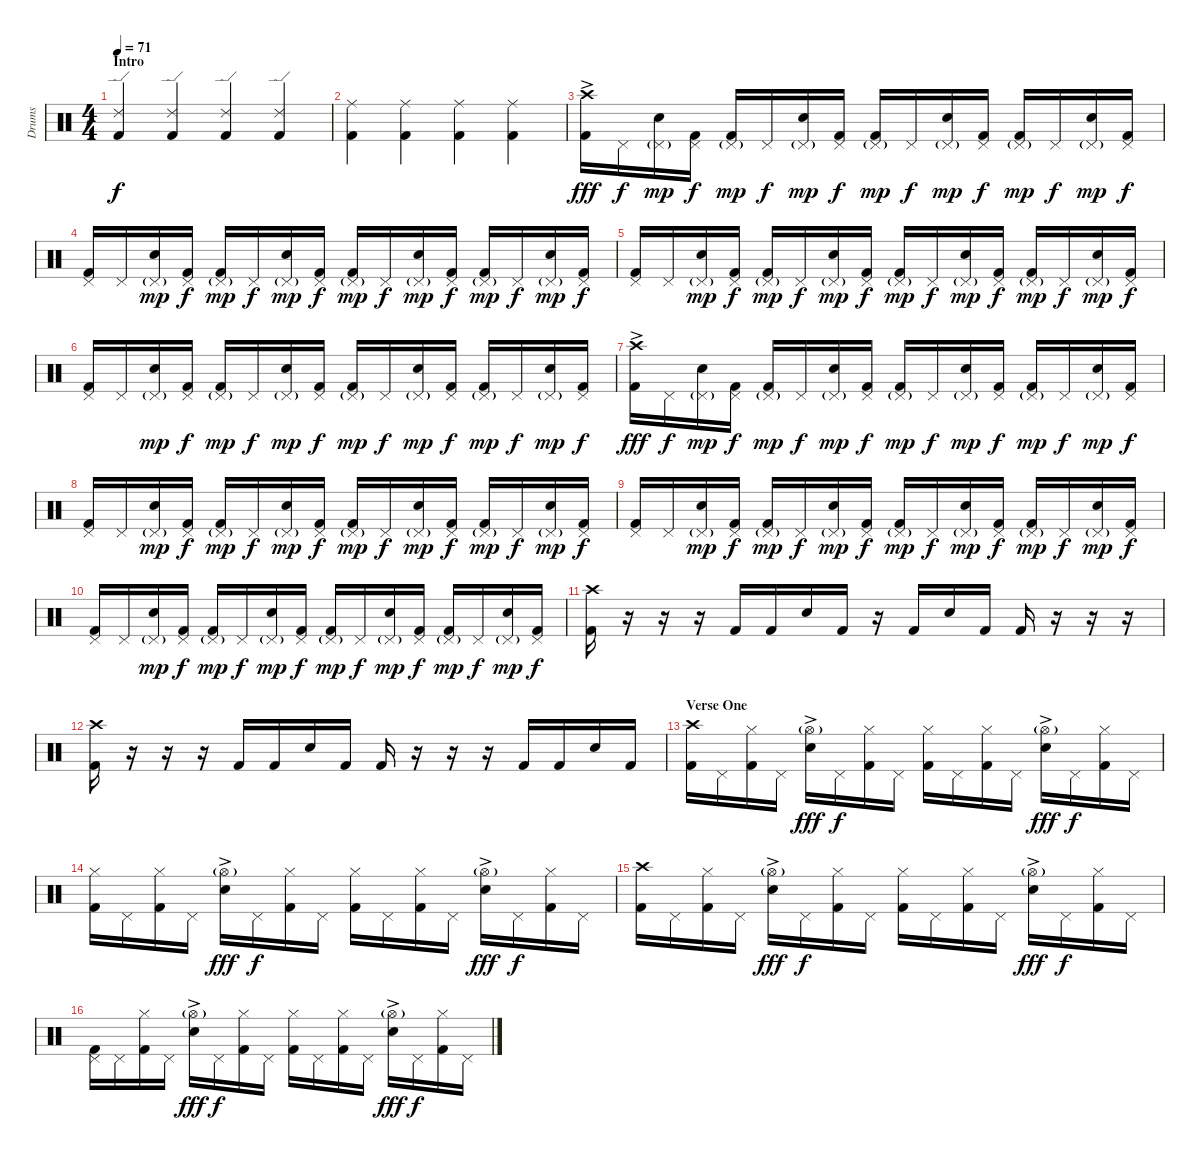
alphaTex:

\track ("Drums" "Drums") {instrument percussion}
\staff {score}
\articulation defaults
\ts (4 4)
\section ("" "Intro")
\tempo 71
\clef neutral
\ks c
("Ride (edge) 2" "Kick (hit) 2").4{dy f} ("Ride (edge) 2" "Kick (hit) 2").4 ("Ride (edge) 2" "Kick (hit) 2").4 ("Ride (edge) 2" "Kick (hit) 2").4 |
("Ride (middle)" "Kick (hit) 2").4 ("Ride (middle)" "Kick (hit) 2").4 ("Ride (middle)" "Kick (hit) 2").4 ("Ride (middle)" "Kick (hit) 2").4 |
("Crash high (hit)"{ac} "Kick (hit) 2").16{dy fff} "Pedal Hi-Hat (hit)".16{dy f} ("Pedal Hi-Hat (hit)"{g} "Electric Snare (hit)").16{dy mp} ("Pedal Hi-Hat (hit)" "Kick (hit) 2").16{dy f} ("Pedal Hi-Hat (hit)"{g} "Kick (hit) 2").16{dy mp} "Pedal Hi-Hat (hit)".16{dy f} ("Pedal Hi-Hat (hit)"{g} "Electric Snare (hit)").16{dy mp} ("Pedal Hi-Hat (hit)" "Kick (hit) 2").16{dy f} ("Pedal Hi-Hat (hit)"{g} "Kick (hit) 2").16{dy mp} "Pedal Hi-Hat (hit)".16{dy f} ("Pedal Hi-Hat (hit)"{g} "Electric Snare (hit)").16{dy mp} ("Pedal Hi-Hat (hit)" "Kick (hit) 2").16{dy f} ("Pedal Hi-Hat (hit)"{g} "Kick (hit) 2").16{dy mp} "Pedal Hi-Hat (hit)".16{dy f} ("Pedal Hi-Hat (hit)"{g} "Electric Snare (hit)").16{dy mp} ("Pedal Hi-Hat (hit)" "Kick (hit) 2").16{dy f} |
("Pedal Hi-Hat (hit)" "Kick (hit) 2").16 "Pedal Hi-Hat (hit)".16 ("Pedal Hi-Hat (hit)"{g} "Electric Snare (hit)").16{dy mp} ("Pedal Hi-Hat (hit)" "Kick (hit) 2").16{dy f} ("Pedal Hi-Hat (hit)"{g} "Kick (hit) 2").16{dy mp} "Pedal Hi-Hat (hit)".16{dy f} ("Pedal Hi-Hat (hit)"{g} "Electric Snare (hit)").16{dy mp} ("Pedal Hi-Hat (hit)" "Kick (hit) 2").16{dy f} ("Pedal Hi-Hat (hit)"{g} "Kick (hit) 2").16{dy mp} "Pedal Hi-Hat (hit)".16{dy f} ("Pedal Hi-Hat (hit)"{g} "Electric Snare (hit)").16{dy mp} ("Pedal Hi-Hat (hit)" "Kick (hit) 2").16{dy f} ("Pedal Hi-Hat (hit)"{g} "Kick (hit) 2").16{dy mp} "Pedal Hi-Hat (hit)".16{dy f} ("Pedal Hi-Hat (hit)"{g} "Electric Snare (hit)").16{dy mp} ("Pedal Hi-Hat (hit)" "Kick (hit) 2").16{dy f} |
("Pedal Hi-Hat (hit)" "Kick (hit) 2").16 "Pedal Hi-Hat (hit)".16 ("Pedal Hi-Hat (hit)"{g} "Electric Snare (hit)").16{dy mp} ("Pedal Hi-Hat (hit)" "Kick (hit) 2").16{dy f} ("Pedal Hi-Hat (hit)"{g} "Kick (hit) 2").16{dy mp} "Pedal Hi-Hat (hit)".16{dy f} ("Pedal Hi-Hat (hit)"{g} "Electric Snare (hit)").16{dy mp} ("Pedal Hi-Hat (hit)" "Kick (hit) 2").16{dy f} ("Pedal Hi-Hat (hit)"{g} "Kick (hit) 2").16{dy mp} "Pedal Hi-Hat (hit)".16{dy f} ("Pedal Hi-Hat (hit)"{g} "Electric Snare (hit)").16{dy mp} ("Pedal Hi-Hat (hit)" "Kick (hit) 2").16{dy f} ("Pedal Hi-Hat (hit)"{g} "Kick (hit) 2").16{dy mp} "Pedal Hi-Hat (hit)".16{dy f} ("Pedal Hi-Hat (hit)"{g} "Electric Snare (hit)").16{dy mp} ("Pedal Hi-Hat (hit)" "Kick (hit) 2").16{dy f} |
("Pedal Hi-Hat (hit)" "Kick (hit) 2").16 "Pedal Hi-Hat (hit)".16 ("Pedal Hi-Hat (hit)"{g} "Electric Snare (hit)").16{dy mp} ("Pedal Hi-Hat (hit)" "Kick (hit) 2").16{dy f} ("Pedal Hi-Hat (hit)"{g} "Kick (hit) 2").16{dy mp} "Pedal Hi-Hat (hit)".16{dy f} ("Pedal Hi-Hat (hit)"{g} "Electric Snare (hit)").16{dy mp} ("Pedal Hi-Hat (hit)" "Kick (hit) 2").16{dy f} ("Pedal Hi-Hat (hit)"{g} "Kick (hit) 2").16{dy mp} "Pedal Hi-Hat (hit)".16{dy f} ("Pedal Hi-Hat (hit)"{g} "Electric Snare (hit)").16{dy mp} ("Pedal Hi-Hat (hit)" "Kick (hit) 2").16{dy f} ("Pedal Hi-Hat (hit)"{g} "Kick (hit) 2").16{dy mp} "Pedal Hi-Hat (hit)".16{dy f} ("Pedal Hi-Hat (hit)"{g} "Electric Snare (hit)").16{dy mp} ("Pedal Hi-Hat (hit)" "Kick (hit) 2").16{dy f} |
("Crash high (hit)"{ac} "Kick (hit) 2").16{dy fff} "Pedal Hi-Hat (hit)".16{dy f} ("Pedal Hi-Hat (hit)"{g} "Electric Snare (hit)").16{dy mp} ("Pedal Hi-Hat (hit)" "Kick (hit) 2").16{dy f} ("Pedal Hi-Hat (hit)"{g} "Kick (hit) 2").16{dy mp} "Pedal Hi-Hat (hit)".16{dy f} ("Pedal Hi-Hat (hit)"{g} "Electric Snare (hit)").16{dy mp} ("Pedal Hi-Hat (hit)" "Kick (hit) 2").16{dy f} ("Pedal Hi-Hat (hit)"{g} "Kick (hit) 2").16{dy mp} "Pedal Hi-Hat (hit)".16{dy f} ("Pedal Hi-Hat (hit)"{g} "Electric Snare (hit)").16{dy mp} ("Pedal Hi-Hat (hit)" "Kick (hit) 2").16{dy f} ("Pedal Hi-Hat (hit)"{g} "Kick (hit) 2").16{dy mp} "Pedal Hi-Hat (hit)".16{dy f} ("Pedal Hi-Hat (hit)"{g} "Electric Snare (hit)").16{dy mp} ("Pedal Hi-Hat (hit)" "Kick (hit) 2").16{dy f} |
("Pedal Hi-Hat (hit)" "Kick (hit) 2").16 "Pedal Hi-Hat (hit)".16 ("Pedal Hi-Hat (hit)"{g} "Electric Snare (hit)").16{dy mp} ("Pedal Hi-Hat (hit)" "Kick (hit) 2").16{dy f} ("Pedal Hi-Hat (hit)"{g} "Kick (hit) 2").16{dy mp} "Pedal Hi-Hat (hit)".16{dy f} ("Pedal Hi-Hat (hit)"{g} "Electric Snare (hit)").16{dy mp} ("Pedal Hi-Hat (hit)" "Kick (hit) 2").16{dy f} ("Pedal Hi-Hat (hit)"{g} "Kick (hit) 2").16{dy mp} "Pedal Hi-Hat (hit)".16{dy f} ("Pedal Hi-Hat (hit)"{g} "Electric Snare (hit)").16{dy mp} ("Pedal Hi-Hat (hit)" "Kick (hit) 2").16{dy f} ("Pedal Hi-Hat (hit)"{g} "Kick (hit) 2").16{dy mp} "Pedal Hi-Hat (hit)".16{dy f} ("Pedal Hi-Hat (hit)"{g} "Electric Snare (hit)").16{dy mp} ("Pedal Hi-Hat (hit)" "Kick (hit) 2").16{dy f} |
("Pedal Hi-Hat (hit)" "Kick (hit) 2").16 "Pedal Hi-Hat (hit)".16 ("Pedal Hi-Hat (hit)"{g} "Electric Snare (hit)").16{dy mp} ("Pedal Hi-Hat (hit)" "Kick (hit) 2").16{dy f} ("Pedal Hi-Hat (hit)"{g} "Kick (hit) 2").16{dy mp} "Pedal Hi-Hat (hit)".16{dy f} ("Pedal Hi-Hat (hit)"{g} "Electric Snare (hit)").16{dy mp} ("Pedal Hi-Hat (hit)" "Kick (hit) 2").16{dy f} ("Pedal Hi-Hat (hit)"{g} "Kick (hit) 2").16{dy mp} "Pedal Hi-Hat (hit)".16{dy f} ("Pedal Hi-Hat (hit)"{g} "Electric Snare (hit)").16{dy mp} ("Pedal Hi-Hat (hit)" "Kick (hit) 2").16{dy f} ("Pedal Hi-Hat (hit)"{g} "Kick (hit) 2").16{dy mp} "Pedal Hi-Hat (hit)".16{dy f} ("Pedal Hi-Hat (hit)"{g} "Electric Snare (hit)").16{dy mp} ("Pedal Hi-Hat (hit)" "Kick (hit) 2").16{dy f} |
("Pedal Hi-Hat (hit)" "Kick (hit) 2").16 "Pedal Hi-Hat (hit)".16 ("Pedal Hi-Hat (hit)"{g} "Electric Snare (hit)").16{dy mp} ("Pedal Hi-Hat (hit)" "Kick (hit) 2").16{dy f} ("Pedal Hi-Hat (hit)"{g} "Kick (hit) 2").16{dy mp} "Pedal Hi-Hat (hit)".16{dy f} ("Pedal Hi-Hat (hit)"{g} "Electric Snare (hit)").16{dy mp} ("Pedal Hi-Hat (hit)" "Kick (hit) 2").16{dy f} ("Pedal Hi-Hat (hit)"{g} "Kick (hit) 2").16{dy mp} "Pedal Hi-Hat (hit)".16{dy f} ("Pedal Hi-Hat (hit)"{g} "Electric Snare (hit)").16{dy mp} ("Pedal Hi-Hat (hit)" "Kick (hit) 2").16{dy f} ("Pedal Hi-Hat (hit)"{g} "Kick (hit) 2").16{dy mp} "Pedal Hi-Hat (hit)".16{dy f} ("Pedal Hi-Hat (hit)"{g} "Electric Snare (hit)").16{dy mp} ("Pedal Hi-Hat (hit)" "Kick (hit) 2").16{dy f} |
\section ("" "")
("Crash high (hit)" "Kick (hit) 2").16 r.16 r.16 r.16 "Kick (hit) 2".16 "Kick (hit) 2".16 "Electric Snare (hit)".16 "Kick (hit) 2".16 r.16 "Kick (hit) 2".16 "Electric Snare (hit)".16 "Kick (hit) 2".16 "Kick (hit) 2".16 r.16 r.16 r.16 |
("Crash high (hit)" "Kick (hit) 2").16 r.16 r.16 r.16 "Kick (hit) 2".16 "Kick (hit) 2".16 "Electric Snare (hit)".16 "Kick (hit) 2".16 "Kick (hit) 2".16 r.16 r.16 r.16 "Kick (hit) 2".16 "Kick (hit) 2".16 "Electric Snare (hit)".16 "Kick (hit) 2".16 |
\section ("" "Verse One")
("Crash high (hit)" "Kick (hit) 2").16 "Pedal Hi-Hat (hit)".16 ("Hi-Hat (closed)" "Kick (hit) 2").16 "Pedal Hi-Hat (hit)".16 ("Hi-Hat (open)"{g} "Snare (hit) 2"{ac}).16{dy fff} "Pedal Hi-Hat (hit)".16{dy f} ("Hi-Hat (closed)" "Kick (hit) 2").16 "Pedal Hi-Hat (hit)".16 ("Hi-Hat (closed)" "Kick (hit) 2").16 "Pedal Hi-Hat (hit)".16 ("Hi-Hat (closed)" "Kick (hit) 2").16 "Pedal Hi-Hat (hit)".16 ("Hi-Hat (open)"{g} "Snare (hit) 2"{ac}).16{dy fff} "Pedal Hi-Hat (hit)".16{dy f} ("Hi-Hat (closed)" "Kick (hit) 2").16 "Pedal Hi-Hat (hit)".16 |
("Hi-Hat (closed)" "Kick (hit) 2").16 "Pedal Hi-Hat (hit)".16 ("Hi-Hat (closed)" "Kick (hit) 2").16 "Pedal Hi-Hat (hit)".16 ("Hi-Hat (open)"{g} "Snare (hit) 2"{ac}).16{dy fff} "Pedal Hi-Hat (hit)".16{dy f} ("Hi-Hat (closed)" "Kick (hit) 2").16 "Pedal Hi-Hat (hit)".16 ("Hi-Hat (closed)" "Kick (hit) 2").16 "Pedal Hi-Hat (hit)".16 ("Hi-Hat (closed)" "Kick (hit) 2").16 "Pedal Hi-Hat (hit)".16 ("Hi-Hat (open)"{g} "Snare (hit) 2"{ac}).16{dy fff} "Pedal Hi-Hat (hit)".16{dy f} ("Hi-Hat (closed)" "Kick (hit) 2").16 "Pedal Hi-Hat (hit)".16 |
("Crash high (hit)" "Kick (hit) 2").16 "Pedal Hi-Hat (hit)".16 ("Hi-Hat (closed)" "Kick (hit) 2").16 "Pedal Hi-Hat (hit)".16 ("Hi-Hat (open)"{g} "Snare (hit) 2"{ac}).16{dy fff} "Pedal Hi-Hat (hit)".16{dy f} ("Hi-Hat (closed)" "Kick (hit) 2").16 "Pedal Hi-Hat (hit)".16 ("Hi-Hat (closed)" "Kick (hit) 2").16 "Pedal Hi-Hat (hit)".16 ("Hi-Hat (closed)" "Kick (hit) 2").16 "Pedal Hi-Hat (hit)".16 ("Hi-Hat (open)"{g} "Snare (hit) 2"{ac}).16{dy fff} "Pedal Hi-Hat (hit)".16{dy f} ("Hi-Hat (closed)" "Kick (hit) 2").16 "Pedal Hi-Hat (hit)".16 |
("Pedal Hi-Hat (hit)" "Kick (hit) 2").16 "Pedal Hi-Hat (hit)".16 ("Hi-Hat (closed)" "Kick (hit) 2").16 "Pedal Hi-Hat (hit)".16 ("Hi-Hat (open)"{g} "Snare (hit) 2"{ac}).16{dy fff} "Pedal Hi-Hat (hit)".16{dy f} ("Hi-Hat (closed)" "Kick (hit) 2").16 "Pedal Hi-Hat (hit)".16 ("Hi-Hat (closed)" "Kick (hit) 2").16 "Pedal Hi-Hat (hit)".16 ("Hi-Hat (closed)" "Kick (hit) 2").16 "Pedal Hi-Hat (hit)".16 ("Hi-Hat (open)"{g} "Snare (hit) 2"{ac}).16{dy fff} "Pedal Hi-Hat (hit)".16{dy f} ("Hi-Hat (closed)" "Kick (hit) 2").16 "Pedal Hi-Hat (hit)".16
